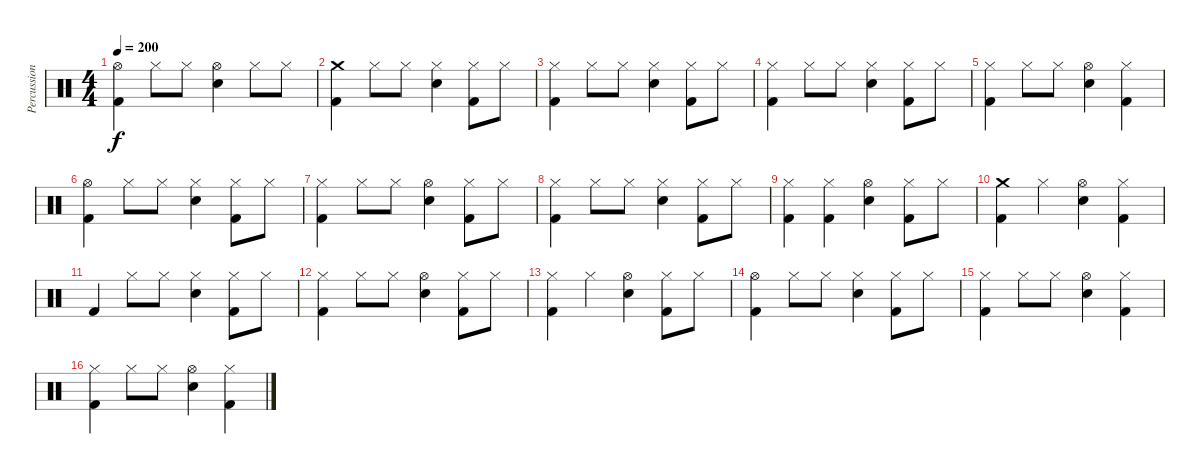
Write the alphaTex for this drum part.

\track ("Percussion" "Percussion") {instrument percussion}
\staff {score}
\articulation defaults
\ts (4 4)
\tempo 200
\clef neutral
\ks c
("Hi-Hat (open)" "Kick (hit) 2").4{dy f} "Hi-Hat (closed)".8 "Hi-Hat (closed)".8 ("Hi-Hat (open)" "Snare (hit) 2").4 "Hi-Hat (closed)".8 "Hi-Hat (closed)".8 |
("Crash medium (hit)" "Kick (hit) 2").4 "Hi-Hat (closed)".8 "Hi-Hat (closed)".8 ("Hi-Hat (closed)" "Snare (hit) 2").4 ("Hi-Hat (closed)" "Kick (hit) 2").8 "Hi-Hat (closed)".8 |
("Hi-Hat (closed)" "Kick (hit) 2").4 "Hi-Hat (closed)".8 "Hi-Hat (closed)".8 ("Hi-Hat (closed)" "Snare (hit) 2").4 ("Hi-Hat (closed)" "Kick (hit) 2").8 "Hi-Hat (closed)".8 |
("Hi-Hat (closed)" "Kick (hit) 2").4 "Hi-Hat (closed)".8 "Hi-Hat (closed)".8 ("Hi-Hat (closed)" "Snare (hit) 2").4 ("Hi-Hat (closed)" "Kick (hit) 2").8 "Hi-Hat (closed)".8 |
("Hi-Hat (closed)" "Kick (hit) 2").4 "Hi-Hat (closed)".8 "Hi-Hat (closed)".8 ("Hi-Hat (open)" "Snare (hit) 2").4 ("Hi-Hat (closed)" "Kick (hit) 2").4 |
("Hi-Hat (open)" "Kick (hit) 2").4 "Hi-Hat (closed)".8 "Hi-Hat (closed)".8 ("Hi-Hat (closed)" "Snare (hit) 2").4 ("Hi-Hat (closed)" "Kick (hit) 2").8 "Hi-Hat (closed)".8 |
("Hi-Hat (closed)" "Kick (hit) 2").4 "Hi-Hat (closed)".8 "Hi-Hat (closed)".8 ("Hi-Hat (open)" "Snare (hit) 2").4 ("Hi-Hat (closed)" "Kick (hit) 2").8 "Hi-Hat (closed)".8 |
("Hi-Hat (closed)" "Kick (hit) 2").4 "Hi-Hat (closed)".8 "Hi-Hat (closed)".8 ("Hi-Hat (closed)" "Snare (hit) 2").4 ("Hi-Hat (closed)" "Kick (hit) 2").8 "Hi-Hat (closed)".8 |
("Hi-Hat (closed)" "Kick (hit) 2").4 ("Hi-Hat (closed)" "Kick (hit) 2").4 ("Hi-Hat (open)" "Snare (hit) 2").4 ("Hi-Hat (closed)" "Kick (hit) 2").8 "Hi-Hat (closed)".8 |
("Crash medium (hit)" "Kick (hit) 2").4 "Hi-Hat (closed)".4 ("Hi-Hat (open)" "Snare (hit) 2").4 ("Hi-Hat (closed)" "Kick (hit) 2").4 |
"Kick (hit) 2".4 "Hi-Hat (closed)".8 "Hi-Hat (closed)".8 ("Hi-Hat (closed)" "Snare (hit) 2").4 ("Hi-Hat (closed)" "Kick (hit) 2").8 "Hi-Hat (closed)".8 |
("Hi-Hat (closed)" "Kick (hit) 2").4 "Hi-Hat (closed)".8 "Hi-Hat (closed)".8 ("Hi-Hat (open)" "Snare (hit) 2").4 ("Hi-Hat (closed)" "Kick (hit) 2").8 "Hi-Hat (closed)".8 |
("Hi-Hat (closed)" "Kick (hit) 2").4 "Hi-Hat (closed)".4 ("Hi-Hat (open)" "Snare (hit) 2").4 ("Hi-Hat (closed)" "Kick (hit) 2").8 "Hi-Hat (closed)".8 |
("Hi-Hat (open)" "Kick (hit) 2").4 "Hi-Hat (closed)".8 "Hi-Hat (closed)".8 ("Hi-Hat (closed)" "Snare (hit) 2").4 ("Hi-Hat (closed)" "Kick (hit) 2").8 "Hi-Hat (closed)".8 |
("Hi-Hat (closed)" "Kick (hit) 2").4 "Hi-Hat (closed)".8 "Hi-Hat (closed)".8 ("Hi-Hat (open)" "Snare (hit) 2").4 ("Hi-Hat (closed)" "Kick (hit) 2").4 |
("Hi-Hat (closed)" "Kick (hit) 2").4 "Hi-Hat (closed)".8 "Hi-Hat (closed)".8 ("Hi-Hat (open)" "Snare (hit) 2").4 ("Hi-Hat (closed)" "Kick (hit) 2").4
